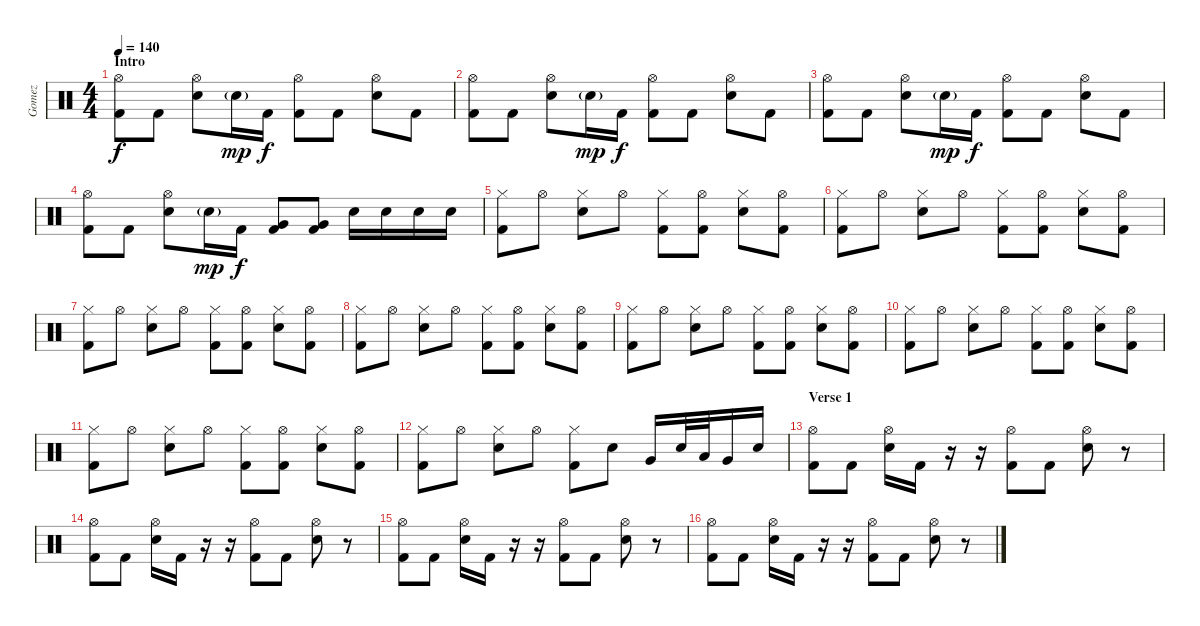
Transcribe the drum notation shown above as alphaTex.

\track ("Gomez" "Gomez") {instrument percussion}
\staff {score}
\articulation defaults
\ts (4 4)
\section ("" "Intro")
\tempo 140
\clef neutral
\ks c
("Hi-Hat (open)" "Kick (hit) 2").8{dy f} "Kick (hit) 2".8 ("Hi-Hat (open)" "Electric Snare (hit)").8 "Electric Snare (hit)"{g}.16{dy mp} "Kick (hit) 2".16{dy f} ("Hi-Hat (open)" "Kick (hit) 2").8 "Kick (hit) 2".8 ("Hi-Hat (open)" "Electric Snare (hit)").8 "Kick (hit) 2".8 |
("Hi-Hat (open)" "Kick (hit) 2").8 "Kick (hit) 2".8 ("Hi-Hat (open)" "Electric Snare (hit)").8 "Electric Snare (hit)"{g}.16{dy mp} "Kick (hit) 2".16{dy f} ("Hi-Hat (open)" "Kick (hit) 2").8 "Kick (hit) 2".8 ("Hi-Hat (open)" "Electric Snare (hit)").8 "Kick (hit) 2".8 |
("Hi-Hat (open)" "Kick (hit) 2").8 "Kick (hit) 2".8 ("Hi-Hat (open)" "Electric Snare (hit)").8 "Electric Snare (hit)"{g}.16{dy mp} "Kick (hit) 2".16{dy f} ("Hi-Hat (open)" "Kick (hit) 2").8 "Kick (hit) 2".8 ("Hi-Hat (open)" "Electric Snare (hit)").8 "Kick (hit) 2".8 |
("Hi-Hat (open)" "Kick (hit) 2").8 "Kick (hit) 2".8 ("Hi-Hat (open)" "Electric Snare (hit)").8 "Electric Snare (hit)"{g}.16{dy mp} "Kick (hit) 2".16{dy f} ("Very Low Tom (hit)" "Kick (hit) 2").8 ("Very Low Tom (hit)" "Kick (hit) 2").8 "Electric Snare (hit)".16 "Electric Snare (hit)".16 "Electric Snare (hit)".16 "Electric Snare (hit)".16 |
("Hi-Hat (closed)" "Kick (hit) 2").8{volume 13} "Hi-Hat (open)".8 ("Hi-Hat (closed)" "Electric Snare (hit)").8 "Hi-Hat (open)".8 ("Hi-Hat (closed)" "Kick (hit) 2").8 ("Hi-Hat (open)" "Kick (hit) 2").8 ("Hi-Hat (closed)" "Electric Snare (hit)").8 ("Hi-Hat (open)" "Kick (hit) 2").8 |
("Hi-Hat (closed)" "Kick (hit) 2").8 "Hi-Hat (open)".8 ("Hi-Hat (closed)" "Electric Snare (hit)").8 "Hi-Hat (open)".8 ("Hi-Hat (closed)" "Kick (hit) 2").8 ("Hi-Hat (open)" "Kick (hit) 2").8 ("Hi-Hat (closed)" "Electric Snare (hit)").8 ("Hi-Hat (open)" "Kick (hit) 2").8 |
("Hi-Hat (closed)" "Kick (hit) 2").8 "Hi-Hat (open)".8 ("Hi-Hat (closed)" "Electric Snare (hit)").8 "Hi-Hat (open)".8 ("Hi-Hat (closed)" "Kick (hit) 2").8 ("Hi-Hat (open)" "Kick (hit) 2").8 ("Hi-Hat (closed)" "Electric Snare (hit)").8 ("Hi-Hat (open)" "Kick (hit) 2").8 |
("Hi-Hat (closed)" "Kick (hit) 2").8 "Hi-Hat (open)".8 ("Hi-Hat (closed)" "Electric Snare (hit)").8 "Hi-Hat (open)".8 ("Hi-Hat (closed)" "Kick (hit) 2").8 ("Hi-Hat (open)" "Kick (hit) 2").8 ("Hi-Hat (closed)" "Electric Snare (hit)").8 ("Hi-Hat (open)" "Kick (hit) 2").8 |
("Hi-Hat (closed)" "Kick (hit) 2").8 "Hi-Hat (open)".8 ("Hi-Hat (closed)" "Electric Snare (hit)").8 "Hi-Hat (open)".8 ("Hi-Hat (closed)" "Kick (hit) 2").8 ("Hi-Hat (open)" "Kick (hit) 2").8 ("Hi-Hat (closed)" "Electric Snare (hit)").8 ("Hi-Hat (open)" "Kick (hit) 2").8 |
("Hi-Hat (closed)" "Kick (hit) 2").8 "Hi-Hat (open)".8 ("Hi-Hat (closed)" "Electric Snare (hit)").8 "Hi-Hat (open)".8 ("Hi-Hat (closed)" "Kick (hit) 2").8 ("Hi-Hat (open)" "Kick (hit) 2").8 ("Hi-Hat (closed)" "Electric Snare (hit)").8 ("Hi-Hat (open)" "Kick (hit) 2").8 |
("Hi-Hat (closed)" "Kick (hit) 2").8 "Hi-Hat (open)".8 ("Hi-Hat (closed)" "Electric Snare (hit)").8 "Hi-Hat (open)".8 ("Hi-Hat (closed)" "Kick (hit) 2").8 ("Hi-Hat (open)" "Kick (hit) 2").8 ("Hi-Hat (closed)" "Electric Snare (hit)").8 ("Hi-Hat (open)" "Kick (hit) 2").8 |
("Hi-Hat (closed)" "Kick (hit) 2").8 "Hi-Hat (open)".8 ("Hi-Hat (closed)" "Electric Snare (hit)").8 "Hi-Hat (open)".8 ("Hi-Hat (closed)" "Kick (hit) 2").8 "Electric Snare (hit)".8{volume 16} "Very Low Tom (hit)".16 "Electric Snare (hit)".32 "Low Tom (hit)".32 "Very Low Tom (hit)".16 "Electric Snare (hit)".16 |
\section ("" "Verse 1")
("Hi-Hat (open)" "Kick (hit) 2").8{volume 13} "Kick (hit) 2".8 ("Hi-Hat (open)" "Electric Snare (hit)").16 "Kick (hit) 2".16 r.16 r.16 ("Hi-Hat (open)" "Kick (hit) 2").8 "Kick (hit) 2".8 ("Hi-Hat (open)" "Electric Snare (hit)").8 r.8 |
("Hi-Hat (open)" "Kick (hit) 2").8 "Kick (hit) 2".8 ("Hi-Hat (open)" "Electric Snare (hit)").16 "Kick (hit) 2".16 r.16 r.16 ("Hi-Hat (open)" "Kick (hit) 2").8 "Kick (hit) 2".8 ("Hi-Hat (open)" "Electric Snare (hit)").8 r.8 |
("Hi-Hat (open)" "Kick (hit) 2").8 "Kick (hit) 2".8 ("Hi-Hat (open)" "Electric Snare (hit)").16 "Kick (hit) 2".16 r.16 r.16 ("Hi-Hat (open)" "Kick (hit) 2").8 "Kick (hit) 2".8 ("Hi-Hat (open)" "Electric Snare (hit)").8 r.8 |
("Hi-Hat (open)" "Kick (hit) 2").8 "Kick (hit) 2".8 ("Hi-Hat (open)" "Electric Snare (hit)").16 "Kick (hit) 2".16 r.16 r.16 ("Hi-Hat (open)" "Kick (hit) 2").8 "Kick (hit) 2".8 ("Hi-Hat (open)" "Electric Snare (hit)").8 r.8
